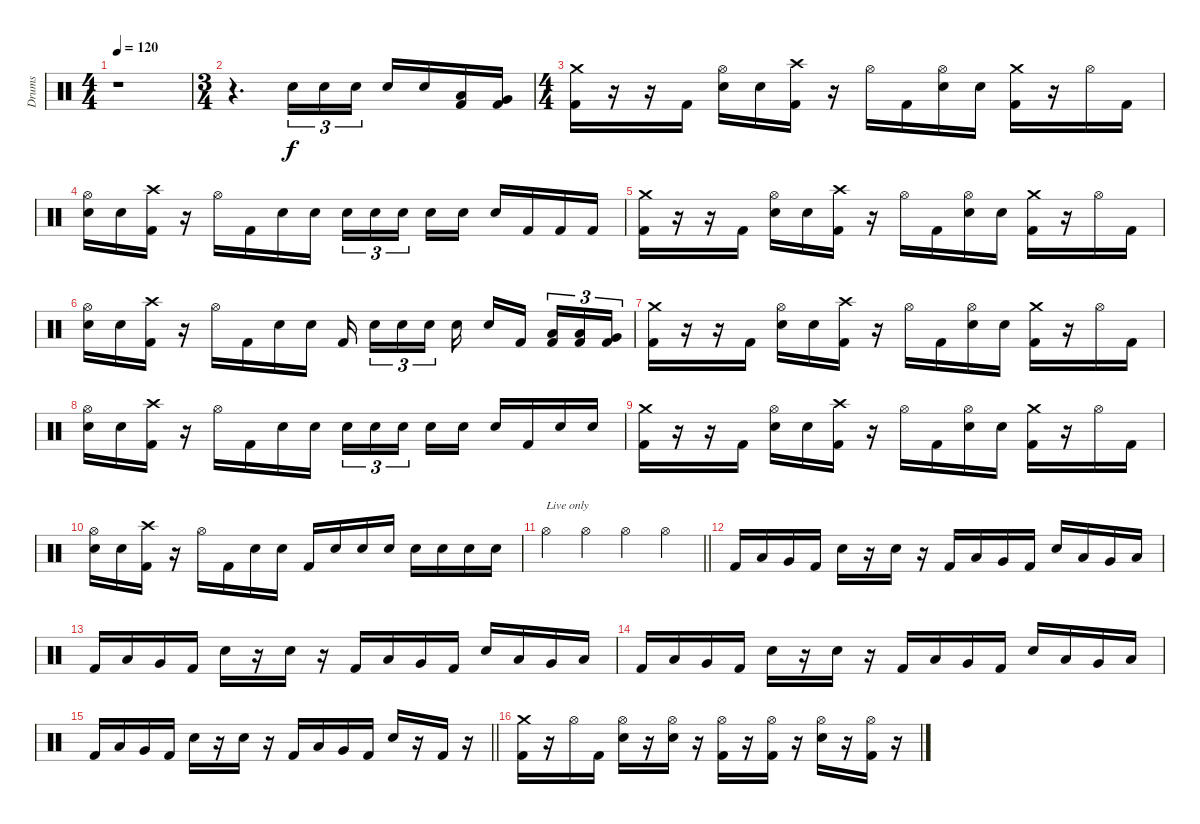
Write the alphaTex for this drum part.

\track ("Drums" "Drums") {instrument percussion}
\staff {score}
\articulation defaults
\ts (4 4)
\tempo 120
\clef neutral
\ks c
r.1{dy f} |
\ts (3 4)
r.4{d} "Electric Snare (hit)".16{tu (3 2)} "Electric Snare (hit)".16{tu (3 2)} "Electric Snare (hit)".16{tu (3 2)} "Electric Snare (hit)".16 "Electric Snare (hit)".16 ("Low Tom (hit)" "Kick (hit) 2").16 ("Very Low Tom (hit)" "Kick (hit) 2").16 |
\ts (4 4)
("Crash medium (hit)" "Kick (hit) 2").16 r.16 r.16 "Kick (hit) 2".16 ("Hi-Hat (open)" "Electric Snare (hit)").16 "Electric Snare (hit)".16 ("Crash high (hit)" "Kick (hit) 2").16 r.16 "Hi-Hat (open)".16 "Kick (hit) 2".16 ("Hi-Hat (open)" "Electric Snare (hit)").16 "Electric Snare (hit)".16 ("Crash medium (hit)" "Kick (hit) 2").16 r.16 "Hi-Hat (open)".16 "Kick (hit) 2".16 |
("Hi-Hat (open)" "Electric Snare (hit)").16 "Electric Snare (hit)".16 ("Crash high (hit)" "Kick (hit) 2").16 r.16 "Hi-Hat (open)".16 "Kick (hit) 2".16 "Electric Snare (hit)".16 "Electric Snare (hit)".16 "Electric Snare (hit)".16{tu (3 2)} "Electric Snare (hit)".16{tu (3 2)} "Electric Snare (hit)".16{tu (3 2)} "Electric Snare (hit)".16 "Electric Snare (hit)".16 "Electric Snare (hit)".16 "Kick (hit) 2".16 "Kick (hit) 2".16 "Kick (hit) 2".16 |
("Crash medium (hit)" "Kick (hit) 2").16 r.16 r.16 "Kick (hit) 2".16 ("Hi-Hat (open)" "Electric Snare (hit)").16 "Electric Snare (hit)".16 ("Crash high (hit)" "Kick (hit) 2").16 r.16 "Hi-Hat (open)".16 "Kick (hit) 2".16 ("Hi-Hat (open)" "Electric Snare (hit)").16 "Electric Snare (hit)".16 ("Crash medium (hit)" "Kick (hit) 2").16 r.16 "Hi-Hat (open)".16 "Kick (hit) 2".16 |
("Hi-Hat (open)" "Electric Snare (hit)").16 "Electric Snare (hit)".16 ("Crash high (hit)" "Kick (hit) 2").16 r.16 "Hi-Hat (open)".16 "Kick (hit) 2".16 "Electric Snare (hit)".16 "Electric Snare (hit)".16 "Kick (hit) 2".16 "Electric Snare (hit)".16{tu (3 2)} "Electric Snare (hit)".16{tu (3 2)} "Electric Snare (hit)".16{tu (3 2)} "Electric Snare (hit)".16 "Electric Snare (hit)".16 "Kick (hit) 2".16 ("Low Tom (hit)" "Kick (hit) 2").16{tu (3 2)} ("Low Tom (hit)" "Kick (hit) 2").16{tu (3 2)} ("Very Low Tom (hit)" "Kick (hit) 2").16{tu (3 2)} |
("Crash medium (hit)" "Kick (hit) 2").16 r.16 r.16 "Kick (hit) 2".16 ("Hi-Hat (open)" "Electric Snare (hit)").16 "Electric Snare (hit)".16 ("Crash high (hit)" "Kick (hit) 2").16 r.16 "Hi-Hat (open)".16 "Kick (hit) 2".16 ("Hi-Hat (open)" "Electric Snare (hit)").16 "Electric Snare (hit)".16 ("Crash medium (hit)" "Kick (hit) 2").16 r.16 "Hi-Hat (open)".16 "Kick (hit) 2".16 |
("Hi-Hat (open)" "Electric Snare (hit)").16 "Electric Snare (hit)".16 ("Crash high (hit)" "Kick (hit) 2").16 r.16 "Hi-Hat (open)".16 "Kick (hit) 2".16 "Electric Snare (hit)".16 "Electric Snare (hit)".16 "Electric Snare (hit)".16{tu (3 2)} "Electric Snare (hit)".16{tu (3 2)} "Electric Snare (hit)".16{tu (3 2)} "Electric Snare (hit)".16 "Electric Snare (hit)".16 "Electric Snare (hit)".16 "Kick (hit) 2".16 "Electric Snare (hit)".16 "Electric Snare (hit)".16 |
("Crash medium (hit)" "Kick (hit) 2").16 r.16 r.16 "Kick (hit) 2".16 ("Hi-Hat (open)" "Electric Snare (hit)").16 "Electric Snare (hit)".16 ("Crash high (hit)" "Kick (hit) 2").16 r.16 "Hi-Hat (open)".16 "Kick (hit) 2".16 ("Hi-Hat (open)" "Electric Snare (hit)").16 "Electric Snare (hit)".16 ("Crash medium (hit)" "Kick (hit) 2").16 r.16 "Hi-Hat (open)".16 "Kick (hit) 2".16 |
("Hi-Hat (open)" "Electric Snare (hit)").16 "Electric Snare (hit)".16 ("Crash high (hit)" "Kick (hit) 2").16 r.16 "Hi-Hat (open)".16 "Kick (hit) 2".16 "Electric Snare (hit)".16 "Electric Snare (hit)".16 "Kick (hit) 2".16 "Electric Snare (hit)".16 "Electric Snare (hit)".16 "Electric Snare (hit)".16 "Electric Snare (hit)".16 "Electric Snare (hit)".16 "Electric Snare (hit)".16 "Electric Snare (hit)".16 |
\barLineRight lightlight "Hi-Hat (open)".4{txt "Live only"} "Hi-Hat (open)".4 "Hi-Hat (open)".4 "Hi-Hat (open)".4
|
\section ("" "")
"Kick (hit) 2".16 "Low Tom (hit)".16 "Very Low Tom (hit)".16 "Kick (hit) 2".16 "Electric Snare (hit)".16 r.16 "Electric Snare (hit)".16 r.16 "Kick (hit) 2".16 "Low Tom (hit)".16 "Very Low Tom (hit)".16 "Kick (hit) 2".16 "Electric Snare (hit)".16 "Low Tom (hit)".16 "Very Low Tom (hit)".16 "Low Floor Tom (hit)".16 |
"Kick (hit) 2".16 "Low Tom (hit)".16 "Very Low Tom (hit)".16 "Kick (hit) 2".16 "Electric Snare (hit)".16 r.16 "Electric Snare (hit)".16 r.16 "Kick (hit) 2".16 "Low Tom (hit)".16 "Very Low Tom (hit)".16 "Kick (hit) 2".16 "Electric Snare (hit)".16 "Low Tom (hit)".16 "Very Low Tom (hit)".16 "Low Floor Tom (hit)".16 |
"Kick (hit) 2".16 "Low Tom (hit)".16 "Very Low Tom (hit)".16 "Kick (hit) 2".16 "Electric Snare (hit)".16 r.16 "Electric Snare (hit)".16 r.16 "Kick (hit) 2".16 "Low Tom (hit)".16 "Very Low Tom (hit)".16 "Kick (hit) 2".16 "Electric Snare (hit)".16 "Low Tom (hit)".16 "Very Low Tom (hit)".16 "Low Floor Tom (hit)".16 |
\barLineRight lightlight "Kick (hit) 2".16 "Low Tom (hit)".16 "Very Low Tom (hit)".16 "Kick (hit) 2".16 "Electric Snare (hit)".16
r.16 "Electric Snare (hit)".16 r.16 "Kick (hit) 2".16 "Low Tom (hit)".16 "Very Low Tom (hit)".16 "Kick (hit) 2".16 "Electric Snare (hit)".16 r.16 "Kick (hit) 2".16 r.16 |
\section ("" "")
("Crash medium (hit)" "Kick (hit) 2").16 r.16 "Hi-Hat (open)".16 "Kick (hit) 2".16 ("Hi-Hat (open)" "Electric Snare (hit)").16 r.16 ("Hi-Hat (open)" "Electric Snare (hit)").16 r.16 ("Hi-Hat (open)" "Kick (hit) 2").16 r.16 ("Hi-Hat (open)" "Kick (hit) 2").16 r.16 ("Hi-Hat (open)" "Electric Snare (hit)").16 r.16 ("Hi-Hat (open)" "Kick (hit) 2").16 r.16
